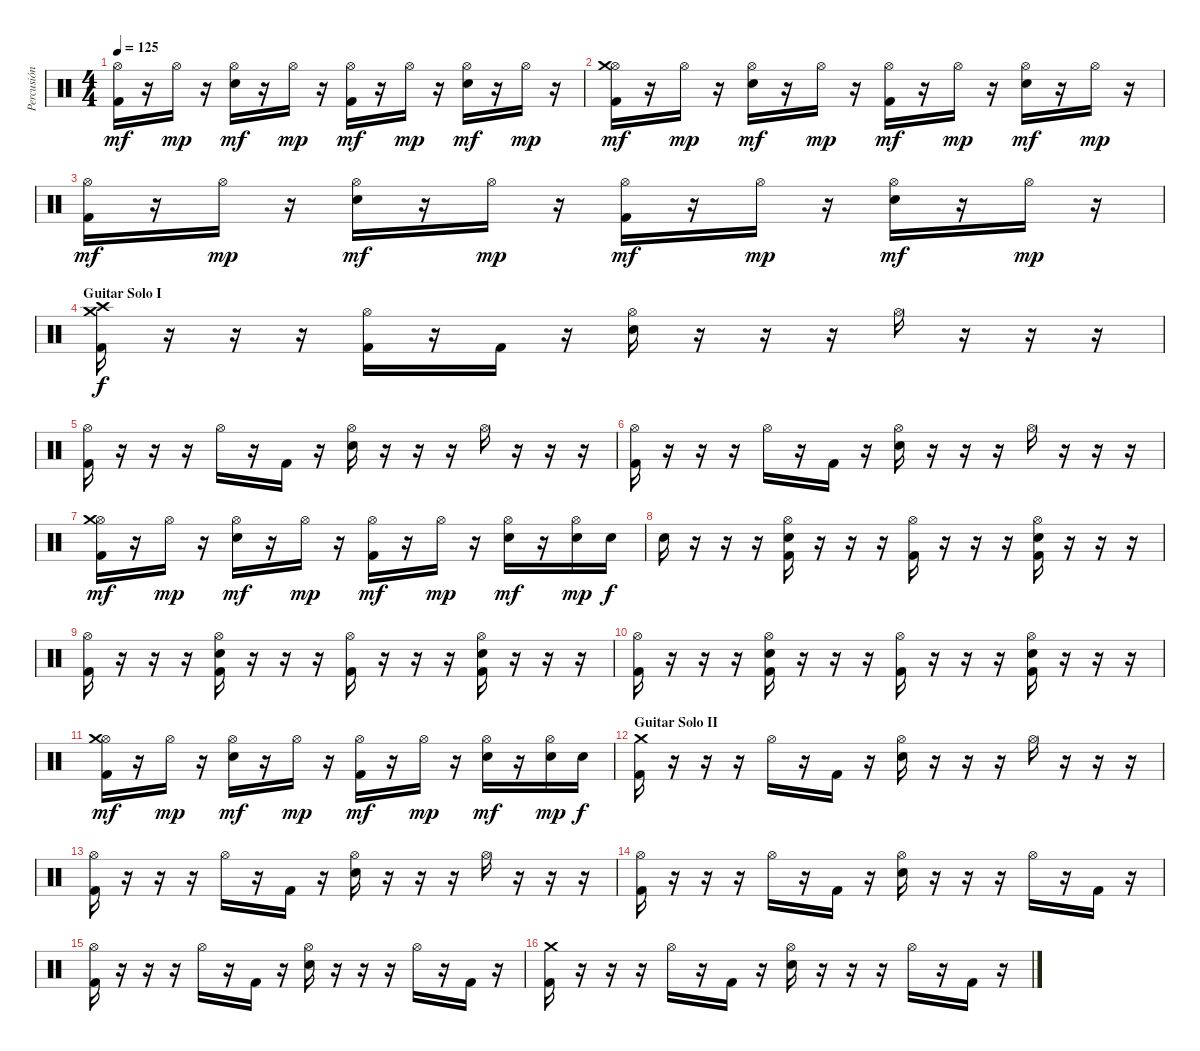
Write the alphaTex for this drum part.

\track ("Percusión" "Percusión") {instrument percussion}
\staff {score}
\articulation defaults
\ts (4 4)
\tempo 125
\clef neutral
\ks c
("Hi-Hat (open)" "Kick (hit) 2").16{dy mf} r.16 "Hi-Hat (open)".16{dy mp} r.16 ("Hi-Hat (open)" "Electric Snare (hit)").16{dy mf} r.16 "Hi-Hat (open)".16{dy mp} r.16 ("Hi-Hat (open)" "Kick (hit) 2").16{dy mf} r.16 "Hi-Hat (open)".16{dy mp} r.16 ("Hi-Hat (open)" "Electric Snare (hit)").16{dy mf} r.16 "Hi-Hat (open)".16{dy mp} r.16 |
("Hi-Hat (open)" "Crash medium (hit)" "Kick (hit) 2").16{dy mf} r.16 "Hi-Hat (open)".16{dy mp} r.16 ("Hi-Hat (open)" "Electric Snare (hit)").16{dy mf} r.16 "Hi-Hat (open)".16{dy mp} r.16 ("Hi-Hat (open)" "Kick (hit) 2").16{dy mf} r.16 "Hi-Hat (open)".16{dy mp} r.16 ("Hi-Hat (open)" "Electric Snare (hit)").16{dy mf} r.16 "Hi-Hat (open)".16{dy mp} r.16 |
("Hi-Hat (open)" "Kick (hit) 2").16{dy mf} r.16 "Hi-Hat (open)".16{dy mp} r.16 ("Hi-Hat (open)" "Electric Snare (hit)").16{dy mf} r.16 "Hi-Hat (open)".16{dy mp} r.16 ("Hi-Hat (open)" "Kick (hit) 2").16{dy mf} r.16 "Hi-Hat (open)".16{dy mp} r.16 ("Hi-Hat (open)" "Electric Snare (hit)").16{dy mf} r.16 "Hi-Hat (open)".16{dy mp} r.16 |
\section ("" "Guitar Solo I")
("Crash medium (hit)" "Crash high (hit)" "Kick (hit) 2").16{dy f} r.16 r.16 r.16 ("Hi-Hat (open)" "Kick (hit) 2").16 r.16 "Kick (hit) 2".16 r.16 ("Hi-Hat (open)" "Electric Snare (hit)").16 r.16 r.16 r.16 "Hi-Hat (open)".16 r.16 r.16 r.16 |
("Hi-Hat (open)" "Kick (hit) 2").16 r.16 r.16 r.16 "Hi-Hat (open)".16 r.16 "Kick (hit) 2".16 r.16 ("Hi-Hat (open)" "Electric Snare (hit)").16 r.16 r.16 r.16 "Hi-Hat (open)".16 r.16 r.16 r.16 |
("Hi-Hat (open)" "Kick (hit) 2").16 r.16 r.16 r.16 "Hi-Hat (open)".16 r.16 "Kick (hit) 2".16 r.16 ("Hi-Hat (open)" "Electric Snare (hit)").16 r.16 r.16 r.16 "Hi-Hat (open)".16 r.16 r.16 r.16 |
("Hi-Hat (open)" "Crash medium (hit)" "Kick (hit) 2").16{dy mf} r.16 "Hi-Hat (open)".16{dy mp} r.16 ("Hi-Hat (open)" "Electric Snare (hit)").16{dy mf} r.16 "Hi-Hat (open)".16{dy mp} r.16 ("Hi-Hat (open)" "Kick (hit) 2").16{dy mf} r.16 "Hi-Hat (open)".16{dy mp} r.16 ("Hi-Hat (open)" "Electric Snare (hit)").16{dy mf} r.16 ("Hi-Hat (open)" "Electric Snare (hit)").16{dy mp} "Electric Snare (hit)".16{dy f} |
"Electric Snare (hit)".16 r.16 r.16 r.16 ("Hi-Hat (open)" "Electric Snare (hit)" "Kick (hit) 2").16 r.16 r.16 r.16 ("Hi-Hat (open)" "Kick (hit) 2").16 r.16 r.16 r.16 ("Hi-Hat (open)" "Electric Snare (hit)" "Kick (hit) 2").16 r.16 r.16 r.16 |
("Hi-Hat (open)" "Kick (hit) 2").16 r.16 r.16 r.16 ("Hi-Hat (open)" "Electric Snare (hit)" "Kick (hit) 2").16 r.16 r.16 r.16 ("Hi-Hat (open)" "Kick (hit) 2").16 r.16 r.16 r.16 ("Hi-Hat (open)" "Electric Snare (hit)" "Kick (hit) 2").16 r.16 r.16 r.16 |
("Hi-Hat (open)" "Kick (hit) 2").16 r.16 r.16 r.16 ("Hi-Hat (open)" "Electric Snare (hit)" "Kick (hit) 2").16 r.16 r.16 r.16 ("Hi-Hat (open)" "Kick (hit) 2").16 r.16 r.16 r.16 ("Hi-Hat (open)" "Electric Snare (hit)" "Kick (hit) 2").16 r.16 r.16 r.16 |
("Hi-Hat (open)" "Crash medium (hit)" "Kick (hit) 2").16{dy mf} r.16 "Hi-Hat (open)".16{dy mp} r.16 ("Hi-Hat (open)" "Electric Snare (hit)").16{dy mf} r.16 "Hi-Hat (open)".16{dy mp} r.16 ("Hi-Hat (open)" "Kick (hit) 2").16{dy mf} r.16 "Hi-Hat (open)".16{dy mp} r.16 ("Hi-Hat (open)" "Electric Snare (hit)").16{dy mf} r.16 ("Hi-Hat (open)" "Electric Snare (hit)").16{dy mp} "Electric Snare (hit)".16{dy f} |
\section ("" "Guitar Solo II")
("Crash medium (hit)" "Kick (hit) 2").16 r.16 r.16 r.16 "Hi-Hat (open)".16 r.16 "Kick (hit) 2".16 r.16 ("Hi-Hat (open)" "Electric Snare (hit)").16 r.16 r.16 r.16 "Hi-Hat (open)".16 r.16 r.16 r.16 |
("Hi-Hat (open)" "Kick (hit) 2").16 r.16 r.16 r.16 "Hi-Hat (open)".16 r.16 "Kick (hit) 2".16 r.16 ("Hi-Hat (open)" "Electric Snare (hit)").16 r.16 r.16 r.16 "Hi-Hat (open)".16 r.16 r.16 r.16 |
("Hi-Hat (open)" "Kick (hit) 2").16 r.16 r.16 r.16 "Hi-Hat (open)".16 r.16 "Kick (hit) 2".16 r.16 ("Hi-Hat (open)" "Electric Snare (hit)").16 r.16 r.16 r.16 "Hi-Hat (open)".16 r.16 "Kick (hit) 2".16 r.16 |
("Hi-Hat (open)" "Kick (hit) 2").16 r.16 r.16 r.16 "Hi-Hat (open)".16 r.16 "Kick (hit) 2".16 r.16 ("Hi-Hat (open)" "Electric Snare (hit)").16 r.16 r.16 r.16 "Hi-Hat (open)".16 r.16 "Kick (hit) 2".16 r.16 |
("Crash medium (hit)" "Kick (hit) 2").16 r.16 r.16 r.16 "Hi-Hat (open)".16 r.16 "Kick (hit) 2".16 r.16 ("Hi-Hat (open)" "Electric Snare (hit)").16 r.16 r.16 r.16 "Hi-Hat (open)".16 r.16 "Kick (hit) 2".16 r.16
